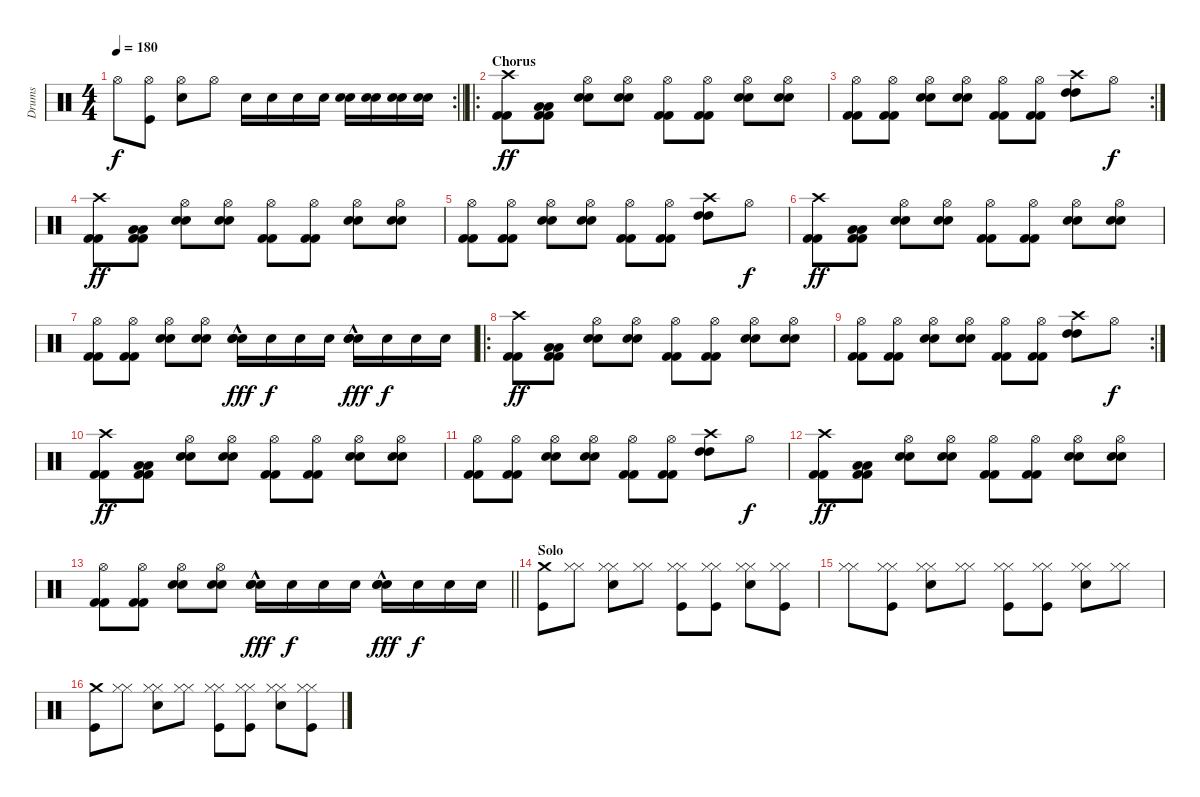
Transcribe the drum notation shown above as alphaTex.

\track ("Drums" "Drums") {instrument percussion}
\staff {score}
\articulation defaults
\rc 2
\ts (4 4)
\tempo 180
\clef neutral
\barLineRight lightlight
\ks c "Hi-Hat (open)".8{dy f}
("Hi-Hat (open)" "Kick (hit)").8 ("Hi-Hat (open)" "Electric Snare (hit)").8 "Hi-Hat (open)".8 "Electric Snare (hit)".16 "Electric Snare (hit)".16 "Electric Snare (hit)".16 "Electric Snare (hit)".16 ("Snare (hit) 2" "Electric Snare (hit)").16 ("Snare (hit) 2" "Electric Snare (hit)").16 ("Snare (hit) 2" "Electric Snare (hit)").16 ("Snare (hit) 2" "Electric Snare (hit)").16 |
\ro
\section ("" "Chorus")
("Kick (hit) 2" "Kick (hit) 2" "Crash high (hit)").8{dy ff} ("Kick (hit) 2" "Kick (hit) 2" "Low Tom (hit)" "Low Tom (hit)").8 ("Electric Snare (hit)" "Electric Snare (hit)" "Hi-Hat (open)").8 ("Electric Snare (hit)" "Electric Snare (hit)" "Hi-Hat (open)").8 ("Kick (hit) 2" "Kick (hit) 2" "Hi-Hat (open)").8 ("Kick (hit) 2" "Kick (hit) 2" "Hi-Hat (open)").8 ("Electric Snare (hit)" "Electric Snare (hit)" "Hi-Hat (open)").8 ("Electric Snare (hit)" "Electric Snare (hit)" "Hi-Hat (open)").8 |
\rc 2
("Kick (hit) 2" "Kick (hit) 2" "Hi-Hat (open)").8 ("Kick (hit) 2" "Kick (hit) 2" "Hi-Hat (open)").8 ("Electric Snare (hit)" "Electric Snare (hit)" "Hi-Hat (open)").8 ("Electric Snare (hit)" "Electric Snare (hit)" "Hi-Hat (open)").8 ("Kick (hit) 2" "Kick (hit) 2" "Hi-Hat (open)").8 ("Kick (hit) 2" "Kick (hit) 2" "Hi-Hat (open)").8 ("High Tom (hit)" "High Tom (hit)" "Crash high (hit)").8 "Hi-Hat (open)".8{dy f} |
("Kick (hit) 2" "Kick (hit) 2" "Crash high (hit)").8{dy ff} ("Kick (hit) 2" "Kick (hit) 2" "Low Tom (hit)" "Low Tom (hit)").8 ("Electric Snare (hit)" "Electric Snare (hit)" "Hi-Hat (open)").8 ("Electric Snare (hit)" "Electric Snare (hit)" "Hi-Hat (open)").8 ("Kick (hit) 2" "Kick (hit) 2" "Hi-Hat (open)").8 ("Kick (hit) 2" "Kick (hit) 2" "Hi-Hat (open)").8 ("Electric Snare (hit)" "Electric Snare (hit)" "Hi-Hat (open)").8 ("Electric Snare (hit)" "Electric Snare (hit)" "Hi-Hat (open)").8 |
("Kick (hit) 2" "Kick (hit) 2" "Hi-Hat (open)").8 ("Kick (hit) 2" "Kick (hit) 2" "Hi-Hat (open)").8 ("Electric Snare (hit)" "Electric Snare (hit)" "Hi-Hat (open)").8 ("Electric Snare (hit)" "Electric Snare (hit)" "Hi-Hat (open)").8 ("Kick (hit) 2" "Kick (hit) 2" "Hi-Hat (open)").8 ("Kick (hit) 2" "Kick (hit) 2" "Hi-Hat (open)").8 ("High Tom (hit)" "High Tom (hit)" "Crash high (hit)").8 "Hi-Hat (open)".8{dy f} |
("Kick (hit) 2" "Kick (hit) 2" "Crash high (hit)").8{dy ff} ("Kick (hit) 2" "Kick (hit) 2" "Low Tom (hit)" "Low Tom (hit)").8 ("Electric Snare (hit)" "Electric Snare (hit)" "Hi-Hat (open)").8 ("Electric Snare (hit)" "Electric Snare (hit)" "Hi-Hat (open)").8 ("Kick (hit) 2" "Kick (hit) 2" "Hi-Hat (open)").8 ("Kick (hit) 2" "Kick (hit) 2" "Hi-Hat (open)").8 ("Electric Snare (hit)" "Electric Snare (hit)" "Hi-Hat (open)").8 ("Electric Snare (hit)" "Electric Snare (hit)" "Hi-Hat (open)").8 |
("Kick (hit) 2" "Kick (hit) 2" "Hi-Hat (open)").8 ("Kick (hit) 2" "Kick (hit) 2" "Hi-Hat (open)").8 ("Electric Snare (hit)" "Electric Snare (hit)" "Hi-Hat (open)").8 ("Electric Snare (hit)" "Electric Snare (hit)" "Hi-Hat (open)").8 ("Snare (hit) 2"{hac} "Electric Snare (hit)"{hac} "Snare (hit) 2"{hac}).16{dy fff} "Electric Snare (hit)".16{dy f} "Electric Snare (hit)".16 "Electric Snare (hit)".16 ("Snare (hit) 2"{hac} "Electric Snare (hit)"{hac} "Snare (hit) 2"{hac}).16{dy fff} "Electric Snare (hit)".16{dy f} "Electric Snare (hit)".16 "Electric Snare (hit)".16 |
\ro
("Kick (hit) 2" "Kick (hit) 2" "Crash high (hit)").8{dy ff} ("Kick (hit) 2" "Kick (hit) 2" "Low Tom (hit)" "Low Tom (hit)").8 ("Electric Snare (hit)" "Electric Snare (hit)" "Hi-Hat (open)").8 ("Electric Snare (hit)" "Electric Snare (hit)" "Hi-Hat (open)").8 ("Kick (hit) 2" "Kick (hit) 2" "Hi-Hat (open)").8 ("Kick (hit) 2" "Kick (hit) 2" "Hi-Hat (open)").8 ("Electric Snare (hit)" "Electric Snare (hit)" "Hi-Hat (open)").8 ("Electric Snare (hit)" "Electric Snare (hit)" "Hi-Hat (open)").8 |
\rc 2
("Kick (hit) 2" "Kick (hit) 2" "Hi-Hat (open)").8 ("Kick (hit) 2" "Kick (hit) 2" "Hi-Hat (open)").8 ("Electric Snare (hit)" "Electric Snare (hit)" "Hi-Hat (open)").8 ("Electric Snare (hit)" "Electric Snare (hit)" "Hi-Hat (open)").8 ("Kick (hit) 2" "Kick (hit) 2" "Hi-Hat (open)").8 ("Kick (hit) 2" "Kick (hit) 2" "Hi-Hat (open)").8 ("High Tom (hit)" "High Tom (hit)" "Crash high (hit)").8 "Hi-Hat (open)".8{dy f} |
("Kick (hit) 2" "Kick (hit) 2" "Crash high (hit)").8{dy ff} ("Kick (hit) 2" "Kick (hit) 2" "Low Tom (hit)" "Low Tom (hit)").8 ("Electric Snare (hit)" "Electric Snare (hit)" "Hi-Hat (open)").8 ("Electric Snare (hit)" "Electric Snare (hit)" "Hi-Hat (open)").8 ("Kick (hit) 2" "Kick (hit) 2" "Hi-Hat (open)").8 ("Kick (hit) 2" "Kick (hit) 2" "Hi-Hat (open)").8 ("Electric Snare (hit)" "Electric Snare (hit)" "Hi-Hat (open)").8 ("Electric Snare (hit)" "Electric Snare (hit)" "Hi-Hat (open)").8 |
("Kick (hit) 2" "Kick (hit) 2" "Hi-Hat (open)").8 ("Kick (hit) 2" "Kick (hit) 2" "Hi-Hat (open)").8 ("Electric Snare (hit)" "Electric Snare (hit)" "Hi-Hat (open)").8 ("Electric Snare (hit)" "Electric Snare (hit)" "Hi-Hat (open)").8 ("Kick (hit) 2" "Kick (hit) 2" "Hi-Hat (open)").8 ("Kick (hit) 2" "Kick (hit) 2" "Hi-Hat (open)").8 ("High Tom (hit)" "High Tom (hit)" "Crash high (hit)").8 "Hi-Hat (open)".8{dy f} |
("Kick (hit) 2" "Kick (hit) 2" "Crash high (hit)").8{dy ff} ("Kick (hit) 2" "Kick (hit) 2" "Low Tom (hit)" "Low Tom (hit)").8 ("Electric Snare (hit)" "Electric Snare (hit)" "Hi-Hat (open)").8 ("Electric Snare (hit)" "Electric Snare (hit)" "Hi-Hat (open)").8 ("Kick (hit) 2" "Kick (hit) 2" "Hi-Hat (open)").8 ("Kick (hit) 2" "Kick (hit) 2" "Hi-Hat (open)").8 ("Electric Snare (hit)" "Electric Snare (hit)" "Hi-Hat (open)").8 ("Electric Snare (hit)" "Electric Snare (hit)" "Hi-Hat (open)").8 |
\barLineRight lightlight
("Kick (hit) 2" "Kick (hit) 2" "Hi-Hat (open)").8 ("Kick (hit) 2" "Kick (hit) 2" "Hi-Hat (open)").8 ("Electric Snare (hit)" "Electric Snare (hit)" "Hi-Hat (open)").8 ("Electric Snare (hit)" "Electric Snare (hit)" "Hi-Hat (open)").8 ("Snare (hit) 2"{hac} "Electric Snare (hit)"{hac} "Snare (hit) 2"{hac}).16{dy fff} "Electric Snare (hit)".16{dy f} "Electric Snare (hit)".16 "Electric Snare (hit)".16 ("Snare (hit) 2"{hac} "Electric Snare (hit)"{hac} "Snare (hit) 2"{hac}).16{dy fff} "Electric Snare (hit)".16{dy f} "Electric Snare (hit)".16 "Electric Snare (hit)".16 |
\section ("" "Solo")
("Crash medium (hit)" "Kick (hit)").8 ("Hi-Hat (closed)" "Hi-Hat (closed)").8 ("Hi-Hat (closed)" "Hi-Hat (closed)" "Electric Snare (hit)").8 ("Hi-Hat (closed)" "Hi-Hat (closed)").8 ("Hi-Hat (closed)" "Hi-Hat (closed)" "Kick (hit)").8 ("Hi-Hat (closed)" "Hi-Hat (closed)" "Kick (hit)").8 ("Hi-Hat (closed)" "Hi-Hat (closed)" "Electric Snare (hit)").8 ("Hi-Hat (closed)" "Hi-Hat (closed)" "Kick (hit)").8 |
("Hi-Hat (closed)" "Hi-Hat (closed)").8 ("Hi-Hat (closed)" "Hi-Hat (closed)" "Kick (hit)").8 ("Hi-Hat (closed)" "Hi-Hat (closed)" "Electric Snare (hit)").8 ("Hi-Hat (closed)" "Hi-Hat (closed)").8 ("Hi-Hat (closed)" "Hi-Hat (closed)" "Kick (hit)").8 ("Hi-Hat (closed)" "Hi-Hat (closed)" "Kick (hit)").8 ("Hi-Hat (closed)" "Hi-Hat (closed)" "Electric Snare (hit)").8 ("Hi-Hat (closed)" "Hi-Hat (closed)").8 |
("Crash medium (hit)" "Kick (hit)").8 ("Hi-Hat (closed)" "Hi-Hat (closed)").8 ("Hi-Hat (closed)" "Hi-Hat (closed)" "Electric Snare (hit)").8 ("Hi-Hat (closed)" "Hi-Hat (closed)").8 ("Hi-Hat (closed)" "Hi-Hat (closed)" "Kick (hit)").8 ("Hi-Hat (closed)" "Hi-Hat (closed)" "Kick (hit)").8 ("Hi-Hat (closed)" "Hi-Hat (closed)" "Electric Snare (hit)").8 ("Hi-Hat (closed)" "Hi-Hat (closed)" "Kick (hit)").8
